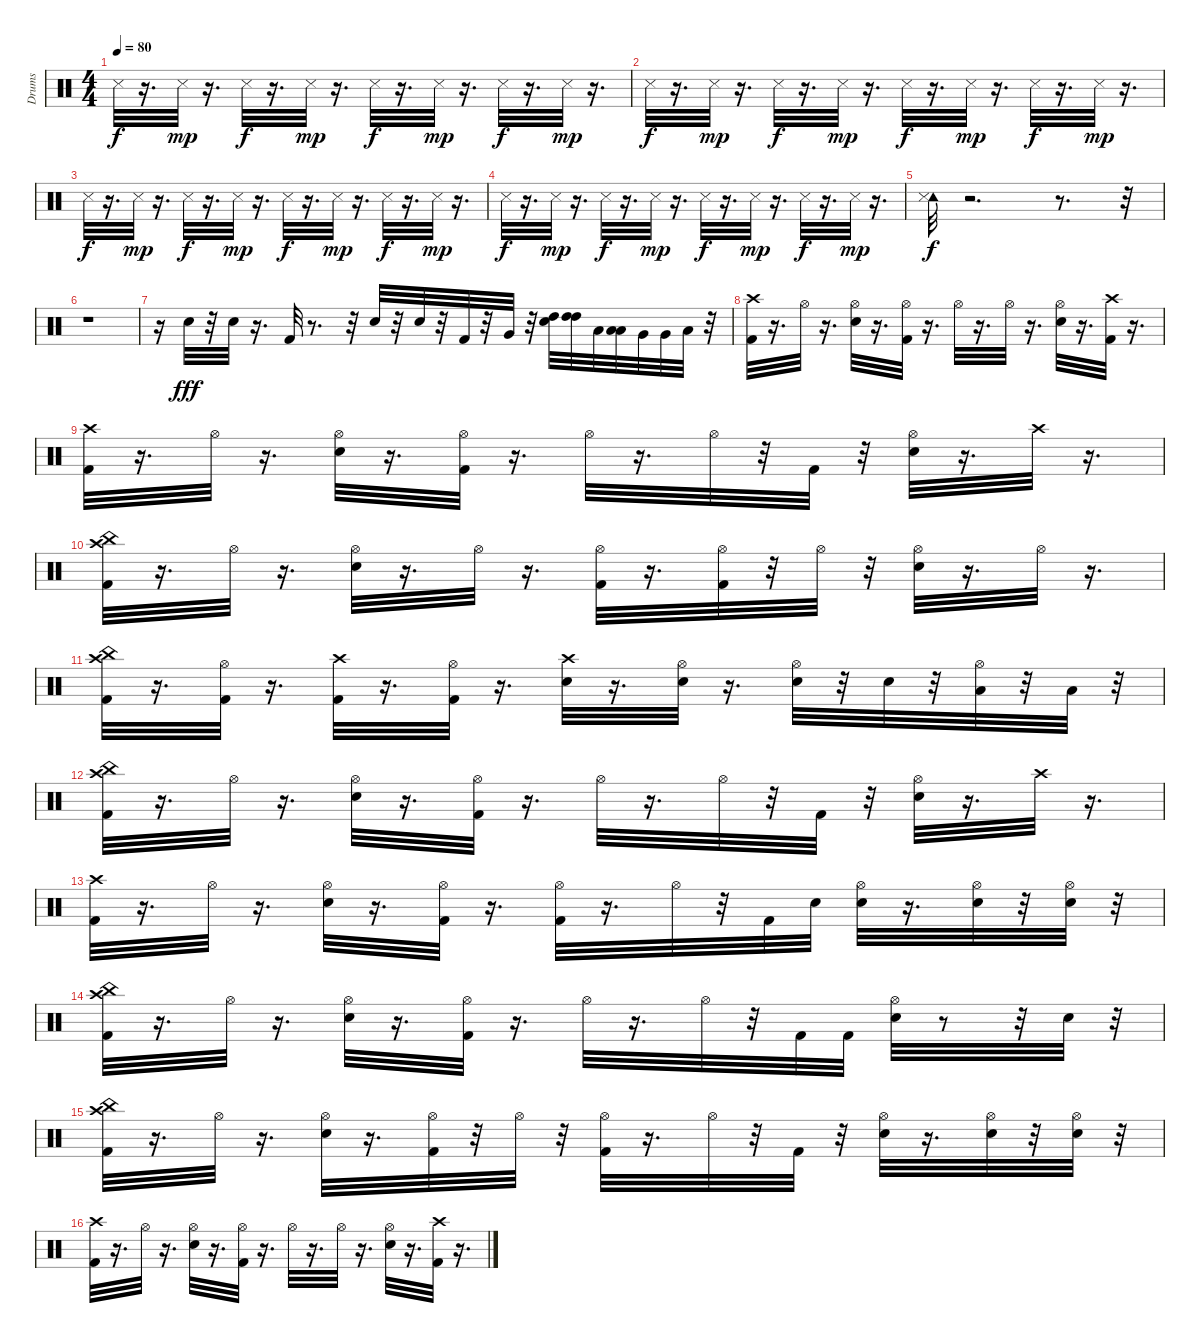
\track ("Drums" "Drums") {instrument percussion}
\staff {score}
\articulation defaults
\ts (4 4)
\tempo 80
\clef neutral
\ks c "Snare (side stick) 3".32{dy f}
r.16{d} "Snare (side stick) 3".32{dy mp} r.16{d} "Snare (side stick) 3".32{dy f} r.16{d} "Snare (side stick) 3".32{dy mp} r.16{d} "Snare (side stick) 3".32{dy f} r.16{d} "Snare (side stick) 3".32{dy mp} r.16{d} "Snare (side stick) 3".32{dy f} r.16{d} "Snare (side stick) 3".32{dy mp} r.16{d} |
"Snare (side stick) 3".32{dy f} r.16{d} "Snare (side stick) 3".32{dy mp} r.16{d} "Snare (side stick) 3".32{dy f} r.16{d} "Snare (side stick) 3".32{dy mp} r.16{d} "Snare (side stick) 3".32{dy f} r.16{d} "Snare (side stick) 3".32{dy mp} r.16{d} "Snare (side stick) 3".32{dy f} r.16{d} "Snare (side stick) 3".32{dy mp} r.16{d} |
"Snare (side stick) 3".32{dy f} r.16{d} "Snare (side stick) 3".32{dy mp} r.16{d} "Snare (side stick) 3".32{dy f} r.16{d} "Snare (side stick) 3".32{dy mp} r.16{d} "Snare (side stick) 3".32{dy f} r.16{d} "Snare (side stick) 3".32{dy mp} r.16{d} "Snare (side stick) 3".32{dy f} r.16{d} "Snare (side stick) 3".32{dy mp} r.16{d} |
"Snare (side stick) 3".32{dy f} r.16{d} "Snare (side stick) 3".32{dy mp} r.16{d} "Snare (side stick) 3".32{dy f} r.16{d} "Snare (side stick) 3".32{dy mp} r.16{d} "Snare (side stick) 3".32{dy f} r.16{d} "Snare (side stick) 3".32{dy mp} r.16{d} "Snare (side stick) 3".32{dy f} r.16{d} "Snare (side stick) 3".32{dy mp} r.16{d} |
("Tambourine (hit)" "Snare (side stick) 3").32{dy f} r.2{d} r.8{d} r.32 |
r.1 |
r.16 "Snare (hit) 2".32{dy fff} r.32 "Snare (hit) 2".32 r.16{d} "Kick (hit) 2".32 r.8{d} r.32 "Snare (hit) 2".32 r.32 "Snare (hit) 2".32 r.32 "Kick (hit) 2".32 r.32 "Very Low Tom (hit)".32 r.32 ("High Tom (hit)" "Snare (hit) 2").32 ("High Tom (hit)" "High Tom (hit)").32 "Low Tom (hit)".32 ("Low Tom (hit)" "Low Tom (hit)").32 "Very Low Tom (hit)".32 "Very Low Tom (hit)".32 "Low Floor Tom (hit)".32 r.32 |
("Kick (hit) 2" "Crash high (hit)").32 r.16{d} "Hi-Hat (open)".32 r.16{d} ("Hi-Hat (open)" "Snare (hit) 2").32 r.16{d} ("Hi-Hat (open)" "Kick (hit) 2").32 r.16{d} "Hi-Hat (open)".32 r.16{d} "Hi-Hat (open)".32 r.16{d} ("Hi-Hat (open)" "Snare (hit) 2").32 r.16{d} ("Kick (hit) 2" "Crash high (hit)").32 r.16{d} |
("Crash high (hit)" "Kick (hit) 2").32 r.16{d} "Hi-Hat (open)".32 r.16{d} ("Hi-Hat (open)" "Snare (hit) 2").32 r.16{d} ("Hi-Hat (open)" "Kick (hit) 2").32 r.16{d} "Hi-Hat (open)".32 r.16{d} "Hi-Hat (open)".32 r.32 "Kick (hit) 2".32 r.32 ("Hi-Hat (open)" "Snare (hit) 2").32 r.16{d} "Crash high (hit)".32 r.16{d} |
("Kick (hit) 2" "China (hit)" "Crash high (hit)").32 r.16{d} "Hi-Hat (open)".32 r.16{d} ("Hi-Hat (open)" "Snare (hit) 2").32 r.16{d} "Hi-Hat (open)".32 r.16{d} ("Hi-Hat (open)" "Kick (hit) 2").32 r.16{d} ("Hi-Hat (open)" "Kick (hit) 2").32 r.32 "Hi-Hat (open)".32 r.32 ("Hi-Hat (open)" "Snare (hit) 2").32 r.16{d} "Hi-Hat (open)".32 r.16{d} |
("China (hit)" "Crash high (hit)" "Kick (hit) 2").32 r.16{d} ("Hi-Hat (open)" "Kick (hit) 2").32 r.16{d} ("Crash high (hit)" "Kick (hit) 2").32 r.16{d} ("Hi-Hat (open)" "Kick (hit) 2").32 r.16{d} ("Crash high (hit)" "Snare (hit) 2").32 r.16{d} ("Hi-Hat (open)" "Snare (hit) 2").32 r.16{d} ("Hi-Hat (open)" "Snare (hit) 2").32 r.32 "Snare (hit) 2".32 r.32 ("Hi-Hat (open)" "Low Tom (hit)").32 r.32 "Low Tom (hit)".32 r.32 |
("Kick (hit) 2" "China (hit)" "Crash high (hit)").32 r.16{d} "Hi-Hat (open)".32 r.16{d} ("Hi-Hat (open)" "Snare (hit) 2").32 r.16{d} ("Hi-Hat (open)" "Kick (hit) 2").32 r.16{d} "Hi-Hat (open)".32 r.16{d} "Hi-Hat (open)".32 r.32 "Kick (hit) 2".32 r.32 ("Hi-Hat (open)" "Snare (hit) 2").32 r.16{d} "Crash high (hit)".32 r.16{d} |
("Kick (hit) 2" "Crash high (hit)").32 r.16{d} "Hi-Hat (open)".32 r.16{d} ("Snare (hit) 2" "Hi-Hat (open)").32 r.16{d} ("Kick (hit) 2" "Hi-Hat (open)").32 r.16{d} ("Kick (hit) 2" "Hi-Hat (open)").32 r.16{d} "Hi-Hat (open)".32 r.32 "Kick (hit) 2".32 "Snare (hit) 2".32 ("Snare (hit) 2" "Hi-Hat (open)").32 r.16{d} ("Snare (hit) 2" "Hi-Hat (open)").32 r.32 ("Snare (hit) 2" "Hi-Hat (open)").32 r.32 |
("China (hit)" "Crash high (hit)" "Kick (hit) 2").32 r.16{d} "Hi-Hat (open)".32 r.16{d} ("Hi-Hat (open)" "Snare (hit) 2").32 r.16{d} ("Hi-Hat (open)" "Kick (hit) 2").32 r.16{d} "Hi-Hat (open)".32 r.16{d} "Hi-Hat (open)".32 r.32 "Kick (hit) 2".32 "Kick (hit) 2".32 ("Hi-Hat (open)" "Snare (hit) 2").32 r.8 r.32 "Snare (hit) 2".32 r.32 |
("China (hit)" "Crash high (hit)" "Kick (hit) 2").32 r.16{d} "Hi-Hat (open)".32 r.16{d} ("Hi-Hat (open)" "Snare (hit) 2").32 r.16{d} ("Hi-Hat (open)" "Kick (hit) 2").32 r.32 "Hi-Hat (open)".32 r.32 ("Hi-Hat (open)" "Kick (hit) 2").32 r.16{d} "Hi-Hat (open)".32 r.32 "Kick (hit) 2".32 r.32 ("Hi-Hat (open)" "Snare (hit) 2").32 r.16{d} ("Hi-Hat (open)" "Snare (hit) 2").32 r.32 ("Hi-Hat (open)" "Snare (hit) 2").32 r.32 |
("Kick (hit) 2" "Crash high (hit)").32 r.16{d} "Hi-Hat (open)".32 r.16{d} ("Hi-Hat (open)" "Snare (hit) 2").32 r.16{d} ("Hi-Hat (open)" "Kick (hit) 2").32 r.16{d} "Hi-Hat (open)".32 r.16{d} "Hi-Hat (open)".32 r.16{d} ("Hi-Hat (open)" "Snare (hit) 2").32 r.16{d} ("Kick (hit) 2" "Crash high (hit)").32 r.16{d}
